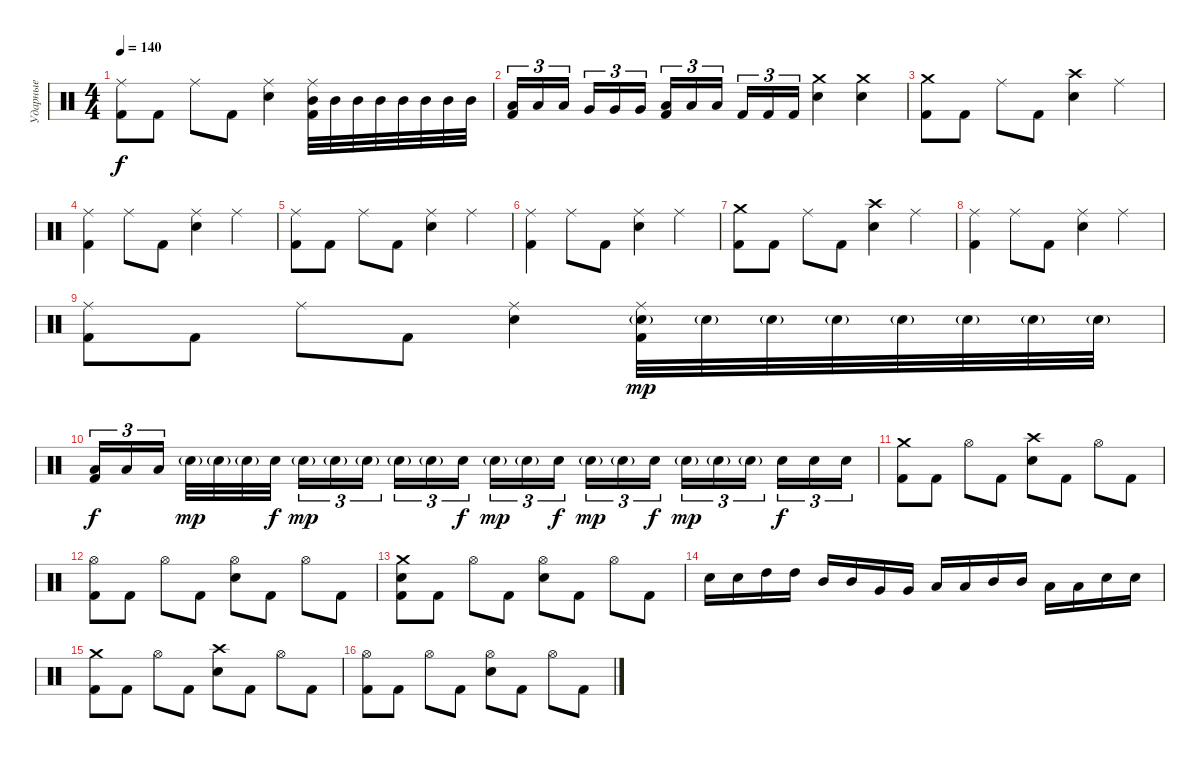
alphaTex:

\track ("Ударные" "Ударные") {instrument percussion}
\staff {score}
\articulation defaults
\ts (4 4)
\tempo 140
\clef neutral
\ks c
("Ride (middle)" "Kick (hit) 2").8{dy f} "Kick (hit) 2".8 "Ride (middle)".8 "Kick (hit) 2".8 ("Ride (middle)" "Snare (hit) 2").4 ("Ride (middle)" "Mid Tom (hit)" "Kick (hit) 2").32 "Mid Tom (hit)".32 "Mid Tom (hit)".32 "Mid Tom (hit)".32 "Mid Tom (hit)".32 "Mid Tom (hit)".32 "Mid Tom (hit)".32 "Mid Tom (hit)".32 |
("Low Tom (hit)" "Kick (hit) 2").16{tu (3 2)} "Low Tom (hit)".16{tu (3 2)} "Low Tom (hit)".16{tu (3 2)} "Very Low Tom (hit)".16{tu (3 2)} "Very Low Tom (hit)".16{tu (3 2)} "Very Low Tom (hit)".16{tu (3 2)} ("Low Floor Tom (hit)" "Kick (hit) 2").16{tu (3 2)} "Low Floor Tom (hit)".16{tu (3 2)} "Low Floor Tom (hit)".16{tu (3 2)} "Kick (hit) 2".16{tu (3 2)} "Kick (hit) 2".16{tu (3 2)} "Kick (hit) 2".16{tu (3 2)} ("Crash medium (hit)" "Snare (hit) 2").4 ("Crash medium (hit)" "Snare (hit) 2").4 |
("Crash medium (hit)" "Kick (hit) 2").8 "Kick (hit) 2".8 "Ride (middle)".8 "Kick (hit) 2".8 ("Crash high (hit)" "Snare (hit) 2").4 "Ride (middle)".4 |
("Ride (middle)" "Kick (hit) 2").4 "Ride (middle)".8 "Kick (hit) 2".8 ("Ride (middle)" "Snare (hit) 2").4 "Ride (middle)".4 |
("Ride (middle)" "Kick (hit) 2").8 "Kick (hit) 2".8 "Ride (middle)".8 "Kick (hit) 2".8 ("Ride (middle)" "Snare (hit) 2").4 "Ride (middle)".4 |
("Ride (middle)" "Kick (hit) 2").4 "Ride (middle)".8 "Kick (hit) 2".8 ("Ride (middle)" "Snare (hit) 2").4 "Ride (middle)".4 |
("Crash medium (hit)" "Kick (hit) 2").8 "Kick (hit) 2".8 "Ride (middle)".8 "Kick (hit) 2".8 ("Crash high (hit)" "Snare (hit) 2").4 "Ride (middle)".4 |
("Ride (middle)" "Kick (hit) 2").4 "Ride (middle)".8 "Kick (hit) 2".8 ("Ride (middle)" "Snare (hit) 2").4 "Ride (middle)".4 |
("Ride (middle)" "Kick (hit) 2").8 "Kick (hit) 2".8 "Ride (middle)".8 "Kick (hit) 2".8 ("Ride (middle)" "Snare (hit) 2").4 ("Ride (middle)" "Snare (hit) 2"{g} "Kick (hit) 2").32{dy mp} "Snare (hit) 2"{g}.32 "Snare (hit) 2"{g}.32 "Snare (hit) 2"{g}.32 "Snare (hit) 2"{g}.32 "Snare (hit) 2"{g}.32 "Snare (hit) 2"{g}.32 "Snare (hit) 2"{g}.32 |
("Low Tom (hit)" "Kick (hit) 2").16{tu (3 2) dy f} "Low Tom (hit)".16{tu (3 2)} "Low Tom (hit)".16{tu (3 2)} "Snare (hit) 2"{g}.32{dy mp} "Snare (hit) 2"{g}.32 "Snare (hit) 2"{g}.32 "Snare (hit) 2".32{dy f} "Snare (hit) 2"{g}.16{tu (3 2) dy mp} "Snare (hit) 2"{g}.16{tu (3 2)} "Snare (hit) 2"{g}.16{tu (3 2)} "Snare (hit) 2"{g}.16{tu (3 2)} "Snare (hit) 2"{g}.16{tu (3 2)} "Snare (hit) 2".16{tu (3 2) dy f} "Snare (hit) 2"{g}.16{tu (3 2) dy mp} "Snare (hit) 2"{g}.16{tu (3 2)} "Snare (hit) 2".16{tu (3 2) dy f} "Snare (hit) 2"{g}.16{tu (3 2) dy mp} "Snare (hit) 2"{g}.16{tu (3 2)} "Snare (hit) 2".16{tu (3 2) dy f} "Snare (hit) 2"{g}.16{tu (3 2) dy mp} "Snare (hit) 2"{g}.16{tu (3 2)} "Snare (hit) 2"{g}.16{tu (3 2)} "Snare (hit) 2".16{tu (3 2) dy f} "Snare (hit) 2".16{tu (3 2)} "Snare (hit) 2".16{tu (3 2)} |
("Crash medium (hit)" "Kick (hit) 2").8 "Kick (hit) 2".8 "Hi-Hat (open)".8 "Kick (hit) 2".8 ("Crash high (hit)" "Snare (hit) 2").8 "Kick (hit) 2".8 "Hi-Hat (open)".8 "Kick (hit) 2".8 |
("Hi-Hat (open)" "Kick (hit) 2").8 "Kick (hit) 2".8 "Hi-Hat (open)".8 "Kick (hit) 2".8 ("Hi-Hat (open)" "Snare (hit) 2").8 "Kick (hit) 2".8 "Hi-Hat (open)".8 "Kick (hit) 2".8 |
("Crash medium (hit)" "Snare (hit) 2" "Kick (hit) 2").8 "Kick (hit) 2".8 "Hi-Hat (open)".8 "Kick (hit) 2".8 ("Hi-Hat (open)" "Snare (hit) 2").8 "Kick (hit) 2".8 "Hi-Hat (open)".8 "Kick (hit) 2".8 |
"Snare (hit) 2".16 "Snare (hit) 2".16 "High Tom (hit)".16 "High Tom (hit)".16 "Mid Tom (hit)".16 "Mid Tom (hit)".16 "Very Low Tom (hit)".16 "Very Low Tom (hit)".16 "Low Floor Tom (hit)".16 "Low Floor Tom (hit)".16 "Mid Tom (hit)".16 "Mid Tom (hit)".16 "Low Floor Tom (hit)".16 "Low Floor Tom (hit)".16 "Snare (hit) 2".16 "Snare (hit) 2".16 |
("Crash medium (hit)" "Kick (hit) 2").8 "Kick (hit) 2".8 "Hi-Hat (open)".8 "Kick (hit) 2".8 ("Crash high (hit)" "Snare (hit) 2").8 "Kick (hit) 2".8 "Hi-Hat (open)".8 "Kick (hit) 2".8 |
("Hi-Hat (open)" "Kick (hit) 2").8 "Kick (hit) 2".8 "Hi-Hat (open)".8 "Kick (hit) 2".8 ("Hi-Hat (open)" "Snare (hit) 2").8 "Kick (hit) 2".8 "Hi-Hat (open)".8 "Kick (hit) 2".8
